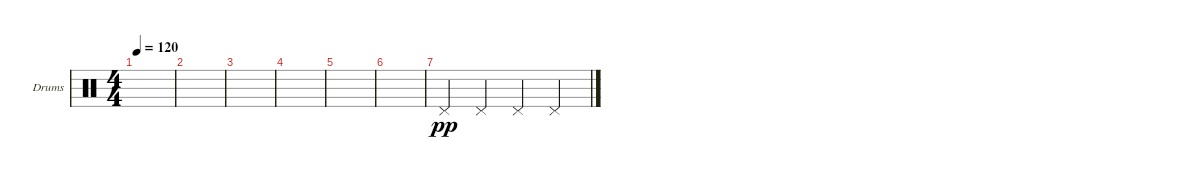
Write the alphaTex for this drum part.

\defaultSystemsLayout 4
\bracketExtendMode groupsimilarinstruments
\firstSystemTrackNameOrientation horizontal
\otherSystemsTrackNameOrientation horizontal
\track ("Drumkit" "Drums") {instrument percussion}
\staff {score}
\articulation defaults
\ts (4 4)
\tempo 120
\clef neutral
\scale
0.333333
\ks c
|
\scale
0.333333 |
\scale
0.333333 |
\scale
0.333333 |
\scale
0.333333 |
\scale
0.333333 |
\scale
0.333333 "Pedal Hi-Hat (hit)".4{dy pp} "Pedal Hi-Hat (hit)".4 "Pedal Hi-Hat (hit)".4 "Pedal Hi-Hat (hit)".4 |
\scale
0.333333
